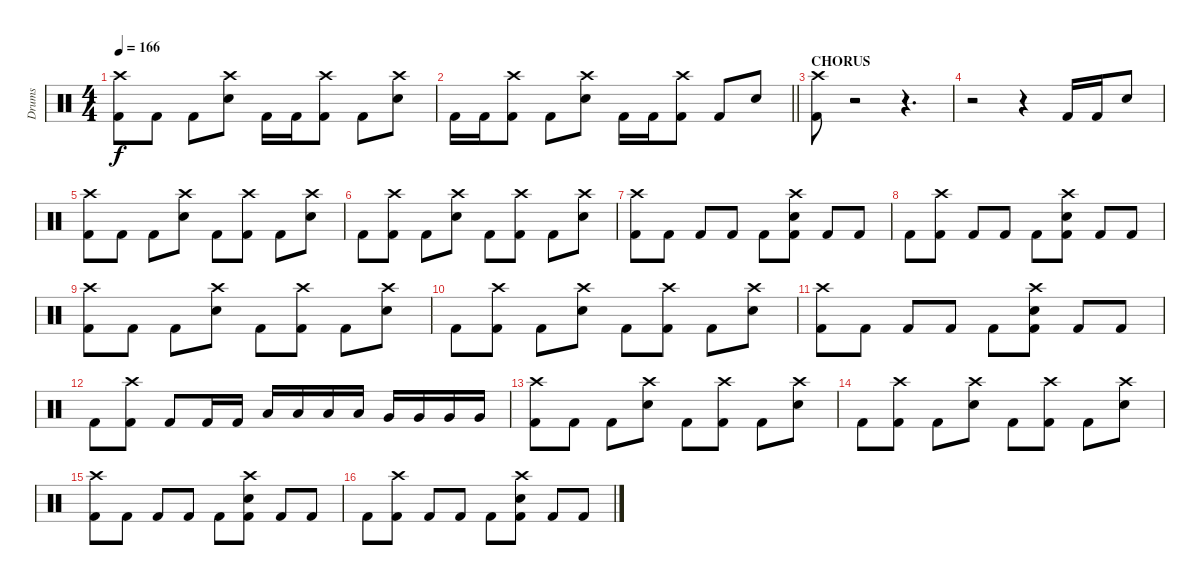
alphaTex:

\track ("Drums" "Drums") {instrument percussion}
\staff {score}
\articulation defaults
\ts (4 4)
\tempo 166
\clef neutral
\ks c
("Crash high (hit)" "Kick (hit) 2").8{dy f} "Kick (hit) 2".8 "Kick (hit) 2".8 ("Crash high (hit)" "Snare (hit) 2").8 "Kick (hit) 2".16 "Kick (hit) 2".16 ("Crash high (hit)" "Kick (hit) 2").8 "Kick (hit) 2".8 ("Crash high (hit)" "Snare (hit) 2").8 |
\barLineRight lightlight "Kick (hit) 2".16 "Kick (hit) 2".16
("Crash high (hit)" "Kick (hit) 2").8 "Kick (hit) 2".8 ("Crash high (hit)" "Snare (hit) 2").8 "Kick (hit) 2".16 "Kick (hit) 2".16 ("Crash high (hit)" "Kick (hit) 2").8 "Kick (hit) 2".8 "Snare (hit) 2".8 |
\section ("" "CHORUS")
("Crash high (hit)" "Kick (hit) 2").8 r.2 r.4{d} |
r.2 r.4 "Kick (hit) 2".16 "Kick (hit) 2".16 "Snare (hit) 2".8 |
("Crash high (hit)" "Kick (hit) 2").8 "Kick (hit) 2".8 "Kick (hit) 2".8 ("Crash high (hit)" "Snare (hit) 2").8 "Kick (hit) 2".8 ("Crash high (hit)" "Kick (hit) 2").8 "Kick (hit) 2".8 ("Crash high (hit)" "Snare (hit) 2").8 |
"Kick (hit) 2".8 ("Crash high (hit)" "Kick (hit) 2").8 "Kick (hit) 2".8 ("Crash high (hit)" "Snare (hit) 2").8 "Kick (hit) 2".8 ("Crash high (hit)" "Kick (hit) 2").8 "Kick (hit) 2".8 ("Crash high (hit)" "Snare (hit) 2").8 |
("Crash high (hit)" "Kick (hit) 2").8 "Kick (hit) 2".8 "Kick (hit) 2".8 "Kick (hit) 2".8 "Kick (hit) 2".8 ("Crash high (hit)" "Snare (hit) 2" "Kick (hit) 2").8 "Kick (hit) 2".8 "Kick (hit) 2".8 |
"Kick (hit) 2".8 ("Crash high (hit)" "Kick (hit) 2").8 "Kick (hit) 2".8 "Kick (hit) 2".8 "Kick (hit) 2".8 ("Crash high (hit)" "Snare (hit) 2" "Kick (hit) 2").8 "Kick (hit) 2".8 "Kick (hit) 2".8 |
("Crash high (hit)" "Kick (hit) 2").8 "Kick (hit) 2".8 "Kick (hit) 2".8 ("Crash high (hit)" "Snare (hit) 2").8 "Kick (hit) 2".8 ("Crash high (hit)" "Kick (hit) 2").8 "Kick (hit) 2".8 ("Crash high (hit)" "Snare (hit) 2").8 |
"Kick (hit) 2".8 ("Crash high (hit)" "Kick (hit) 2").8 "Kick (hit) 2".8 ("Crash high (hit)" "Snare (hit) 2").8 "Kick (hit) 2".8 ("Crash high (hit)" "Kick (hit) 2").8 "Kick (hit) 2".8 ("Crash high (hit)" "Snare (hit) 2").8 |
("Crash high (hit)" "Kick (hit) 2").8 "Kick (hit) 2".8 "Kick (hit) 2".8 "Kick (hit) 2".8 "Kick (hit) 2".8 ("Crash high (hit)" "Snare (hit) 2" "Kick (hit) 2").8 "Kick (hit) 2".8 "Kick (hit) 2".8 |
"Kick (hit) 2".8 ("Crash high (hit)" "Kick (hit) 2").8 "Kick (hit) 2".8 "Kick (hit) 2".16 "Kick (hit) 2".16 "Low Tom (hit)".16 "Low Tom (hit)".16 "Low Tom (hit)".16 "Low Tom (hit)".16 "Very Low Tom (hit)".16 "Very Low Tom (hit)".16 "Very Low Tom (hit)".16 "Very Low Tom (hit)".16 |
("Crash high (hit)" "Kick (hit) 2").8 "Kick (hit) 2".8 "Kick (hit) 2".8 ("Crash high (hit)" "Snare (hit) 2").8 "Kick (hit) 2".8 ("Crash high (hit)" "Kick (hit) 2").8 "Kick (hit) 2".8 ("Crash high (hit)" "Snare (hit) 2").8 |
"Kick (hit) 2".8 ("Crash high (hit)" "Kick (hit) 2").8 "Kick (hit) 2".8 ("Crash high (hit)" "Snare (hit) 2").8 "Kick (hit) 2".8 ("Crash high (hit)" "Kick (hit) 2").8 "Kick (hit) 2".8 ("Crash high (hit)" "Snare (hit) 2").8 |
("Crash high (hit)" "Kick (hit) 2").8 "Kick (hit) 2".8 "Kick (hit) 2".8 "Kick (hit) 2".8 "Kick (hit) 2".8 ("Crash high (hit)" "Snare (hit) 2" "Kick (hit) 2").8 "Kick (hit) 2".8 "Kick (hit) 2".8 |
"Kick (hit) 2".8 ("Crash high (hit)" "Kick (hit) 2").8 "Kick (hit) 2".8 "Kick (hit) 2".8 "Kick (hit) 2".8 ("Crash high (hit)" "Snare (hit) 2" "Kick (hit) 2").8 "Kick (hit) 2".8 "Kick (hit) 2".8
